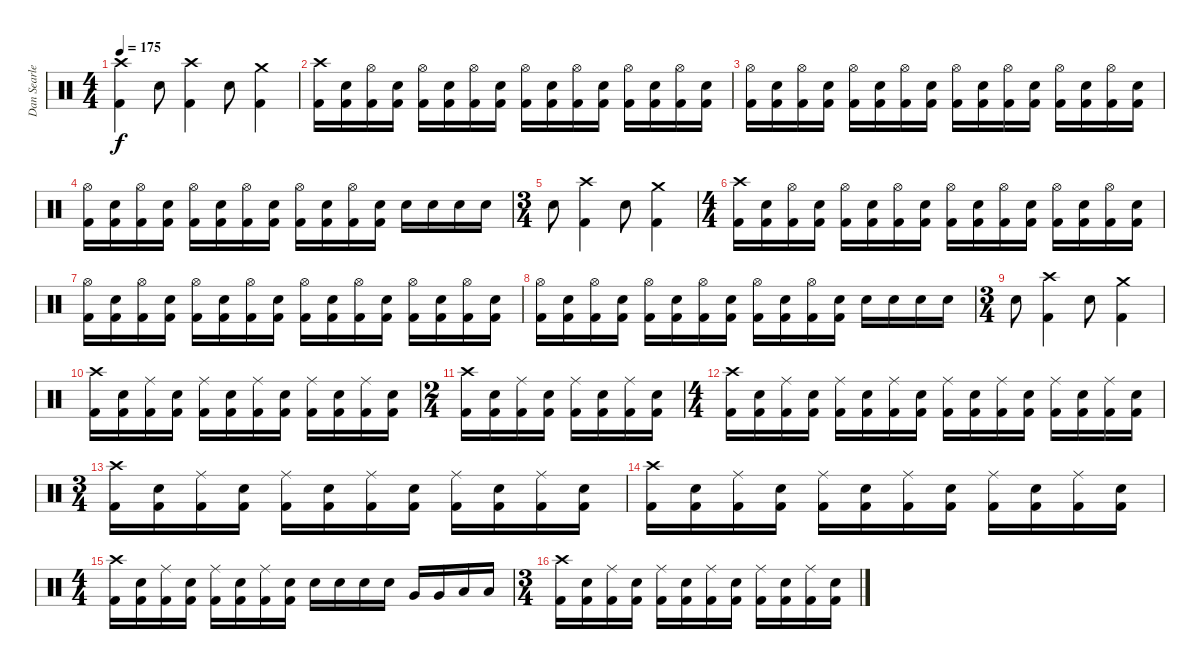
\track ("Dan Searle" "Dan Searle") {instrument percussion}
\staff {score}
\articulation defaults
\ts (4 4)
\tempo 175
\clef neutral
\ks c
("Crash high (hit)" "Kick (hit) 2").4{dy f} "Snare (hit) 2".8 ("Crash high (hit)" "Kick (hit) 2").4 "Snare (hit) 2".8 ("Crash medium (hit)" "Kick (hit) 2").4 |
("Crash high (hit)" "Kick (hit) 2").16 ("Snare (hit) 2" "Kick (hit) 2").16 ("Hi-Hat (open)" "Kick (hit) 2").16 ("Snare (hit) 2" "Kick (hit) 2").16 ("Hi-Hat (open)" "Kick (hit) 2").16 ("Snare (hit) 2" "Kick (hit) 2").16 ("Hi-Hat (open)" "Kick (hit) 2").16 ("Snare (hit) 2" "Kick (hit) 2").16 ("Hi-Hat (open)" "Kick (hit) 2").16 ("Snare (hit) 2" "Kick (hit) 2").16 ("Hi-Hat (open)" "Kick (hit) 2").16 ("Snare (hit) 2" "Kick (hit) 2").16 ("Hi-Hat (open)" "Kick (hit) 2").16 ("Snare (hit) 2" "Kick (hit) 2").16 ("Hi-Hat (open)" "Kick (hit) 2").16 ("Snare (hit) 2" "Kick (hit) 2").16 |
("Hi-Hat (open)" "Kick (hit) 2").16 ("Snare (hit) 2" "Kick (hit) 2").16 ("Hi-Hat (open)" "Kick (hit) 2").16 ("Snare (hit) 2" "Kick (hit) 2").16 ("Hi-Hat (open)" "Kick (hit) 2").16 ("Snare (hit) 2" "Kick (hit) 2").16 ("Hi-Hat (open)" "Kick (hit) 2").16 ("Snare (hit) 2" "Kick (hit) 2").16 ("Hi-Hat (open)" "Kick (hit) 2").16 ("Snare (hit) 2" "Kick (hit) 2").16 ("Hi-Hat (open)" "Kick (hit) 2").16 ("Snare (hit) 2" "Kick (hit) 2").16 ("Hi-Hat (open)" "Kick (hit) 2").16 ("Snare (hit) 2" "Kick (hit) 2").16 ("Hi-Hat (open)" "Kick (hit) 2").16 ("Snare (hit) 2" "Kick (hit) 2").16 |
("Hi-Hat (open)" "Kick (hit) 2").16 ("Snare (hit) 2" "Kick (hit) 2").16 ("Hi-Hat (open)" "Kick (hit) 2").16 ("Snare (hit) 2" "Kick (hit) 2").16 ("Hi-Hat (open)" "Kick (hit) 2").16 ("Snare (hit) 2" "Kick (hit) 2").16 ("Hi-Hat (open)" "Kick (hit) 2").16 ("Snare (hit) 2" "Kick (hit) 2").16 ("Hi-Hat (open)" "Kick (hit) 2").16 ("Snare (hit) 2" "Kick (hit) 2").16 ("Hi-Hat (open)" "Kick (hit) 2").16 ("Snare (hit) 2" "Kick (hit) 2").16 "Snare (hit) 2".16 "Snare (hit) 2".16 "Snare (hit) 2".16 "Snare (hit) 2".16 |
\ts (3 4)
"Snare (hit) 2".8 ("Crash high (hit)" "Kick (hit) 2").4 "Snare (hit) 2".8 ("Crash medium (hit)" "Kick (hit) 2").4 |
\ts (4 4)
("Crash high (hit)" "Kick (hit) 2").16 ("Snare (hit) 2" "Kick (hit) 2").16 ("Hi-Hat (open)" "Kick (hit) 2").16 ("Snare (hit) 2" "Kick (hit) 2").16 ("Hi-Hat (open)" "Kick (hit) 2").16 ("Snare (hit) 2" "Kick (hit) 2").16 ("Hi-Hat (open)" "Kick (hit) 2").16 ("Snare (hit) 2" "Kick (hit) 2").16 ("Hi-Hat (open)" "Kick (hit) 2").16 ("Snare (hit) 2" "Kick (hit) 2").16 ("Hi-Hat (open)" "Kick (hit) 2").16 ("Snare (hit) 2" "Kick (hit) 2").16 ("Hi-Hat (open)" "Kick (hit) 2").16 ("Snare (hit) 2" "Kick (hit) 2").16 ("Hi-Hat (open)" "Kick (hit) 2").16 ("Snare (hit) 2" "Kick (hit) 2").16 |
("Hi-Hat (open)" "Kick (hit) 2").16 ("Snare (hit) 2" "Kick (hit) 2").16 ("Hi-Hat (open)" "Kick (hit) 2").16 ("Snare (hit) 2" "Kick (hit) 2").16 ("Hi-Hat (open)" "Kick (hit) 2").16 ("Snare (hit) 2" "Kick (hit) 2").16 ("Hi-Hat (open)" "Kick (hit) 2").16 ("Snare (hit) 2" "Kick (hit) 2").16 ("Hi-Hat (open)" "Kick (hit) 2").16 ("Snare (hit) 2" "Kick (hit) 2").16 ("Hi-Hat (open)" "Kick (hit) 2").16 ("Snare (hit) 2" "Kick (hit) 2").16 ("Hi-Hat (open)" "Kick (hit) 2").16 ("Snare (hit) 2" "Kick (hit) 2").16 ("Hi-Hat (open)" "Kick (hit) 2").16 ("Snare (hit) 2" "Kick (hit) 2").16 |
("Hi-Hat (open)" "Kick (hit) 2").16 ("Snare (hit) 2" "Kick (hit) 2").16 ("Hi-Hat (open)" "Kick (hit) 2").16 ("Snare (hit) 2" "Kick (hit) 2").16 ("Hi-Hat (open)" "Kick (hit) 2").16 ("Snare (hit) 2" "Kick (hit) 2").16 ("Hi-Hat (open)" "Kick (hit) 2").16 ("Snare (hit) 2" "Kick (hit) 2").16 ("Hi-Hat (open)" "Kick (hit) 2").16 ("Snare (hit) 2" "Kick (hit) 2").16 ("Hi-Hat (open)" "Kick (hit) 2").16 ("Snare (hit) 2" "Kick (hit) 2").16 "Snare (hit) 2".16 "Snare (hit) 2".16 "Snare (hit) 2".16 "Snare (hit) 2".16 |
\ts (3 4)
"Snare (hit) 2".8 ("Crash high (hit)" "Kick (hit) 2").4 "Snare (hit) 2".8 ("Crash medium (hit)" "Kick (hit) 2").4 |
("Crash high (hit)" "Kick (hit) 2").16 ("Snare (hit) 2" "Kick (hit) 2").16 ("Ride (middle)" "Kick (hit) 2").16 ("Snare (hit) 2" "Kick (hit) 2").16 ("Ride (middle)" "Kick (hit) 2").16 ("Snare (hit) 2" "Kick (hit) 2").16 ("Ride (middle)" "Kick (hit) 2").16 ("Snare (hit) 2" "Kick (hit) 2").16 ("Ride (middle)" "Kick (hit) 2").16 ("Snare (hit) 2" "Kick (hit) 2").16 ("Ride (middle)" "Kick (hit) 2").16 ("Snare (hit) 2" "Kick (hit) 2").16 |
\ts (2 4)
("Crash high (hit)" "Kick (hit) 2").16 ("Snare (hit) 2" "Kick (hit) 2").16 ("Ride (middle)" "Kick (hit) 2").16 ("Snare (hit) 2" "Kick (hit) 2").16 ("Ride (middle)" "Kick (hit) 2").16 ("Snare (hit) 2" "Kick (hit) 2").16 ("Ride (middle)" "Kick (hit) 2").16 ("Snare (hit) 2" "Kick (hit) 2").16 |
\ts (4 4)
("Crash high (hit)" "Kick (hit) 2").16 ("Snare (hit) 2" "Kick (hit) 2").16 ("Ride (middle)" "Kick (hit) 2").16 ("Snare (hit) 2" "Kick (hit) 2").16 ("Ride (middle)" "Kick (hit) 2").16 ("Snare (hit) 2" "Kick (hit) 2").16 ("Ride (middle)" "Kick (hit) 2").16 ("Snare (hit) 2" "Kick (hit) 2").16 ("Ride (middle)" "Kick (hit) 2").16 ("Snare (hit) 2" "Kick (hit) 2").16 ("Ride (middle)" "Kick (hit) 2").16 ("Snare (hit) 2" "Kick (hit) 2").16 ("Ride (middle)" "Kick (hit) 2").16 ("Snare (hit) 2" "Kick (hit) 2").16 ("Ride (middle)" "Kick (hit) 2").16 ("Snare (hit) 2" "Kick (hit) 2").16 |
\ts (3 4)
("Crash high (hit)" "Kick (hit) 2").16 ("Snare (hit) 2" "Kick (hit) 2").16 ("Ride (middle)" "Kick (hit) 2").16 ("Snare (hit) 2" "Kick (hit) 2").16 ("Ride (middle)" "Kick (hit) 2").16 ("Snare (hit) 2" "Kick (hit) 2").16 ("Ride (middle)" "Kick (hit) 2").16 ("Snare (hit) 2" "Kick (hit) 2").16 ("Ride (middle)" "Kick (hit) 2").16 ("Snare (hit) 2" "Kick (hit) 2").16 ("Ride (middle)" "Kick (hit) 2").16 ("Snare (hit) 2" "Kick (hit) 2").16 |
("Crash high (hit)" "Kick (hit) 2").16 ("Snare (hit) 2" "Kick (hit) 2").16 ("Ride (middle)" "Kick (hit) 2").16 ("Snare (hit) 2" "Kick (hit) 2").16 ("Ride (middle)" "Kick (hit) 2").16 ("Snare (hit) 2" "Kick (hit) 2").16 ("Ride (middle)" "Kick (hit) 2").16 ("Snare (hit) 2" "Kick (hit) 2").16 ("Ride (middle)" "Kick (hit) 2").16 ("Snare (hit) 2" "Kick (hit) 2").16 ("Ride (middle)" "Kick (hit) 2").16 ("Snare (hit) 2" "Kick (hit) 2").16 |
\ts (4 4)
("Crash high (hit)" "Kick (hit) 2").16 ("Snare (hit) 2" "Kick (hit) 2").16 ("Ride (middle)" "Kick (hit) 2").16 ("Snare (hit) 2" "Kick (hit) 2").16 ("Ride (middle)" "Kick (hit) 2").16 ("Snare (hit) 2" "Kick (hit) 2").16 ("Ride (middle)" "Kick (hit) 2").16 ("Snare (hit) 2" "Kick (hit) 2").16 "Snare (hit) 2".16 "Snare (hit) 2".16 "Snare (hit) 2".16 "Snare (hit) 2".16 "Very Low Tom (hit)".16 "Very Low Tom (hit)".16 "Low Floor Tom (hit)".16 "Low Floor Tom (hit)".16 |
\ts (3 4)
("Crash high (hit)" "Kick (hit) 2").16 ("Snare (hit) 2" "Kick (hit) 2").16 ("Ride (middle)" "Kick (hit) 2").16 ("Snare (hit) 2" "Kick (hit) 2").16 ("Ride (middle)" "Kick (hit) 2").16 ("Snare (hit) 2" "Kick (hit) 2").16 ("Ride (middle)" "Kick (hit) 2").16 ("Snare (hit) 2" "Kick (hit) 2").16 ("Ride (middle)" "Kick (hit) 2").16 ("Snare (hit) 2" "Kick (hit) 2").16 ("Ride (middle)" "Kick (hit) 2").16 ("Snare (hit) 2" "Kick (hit) 2").16
